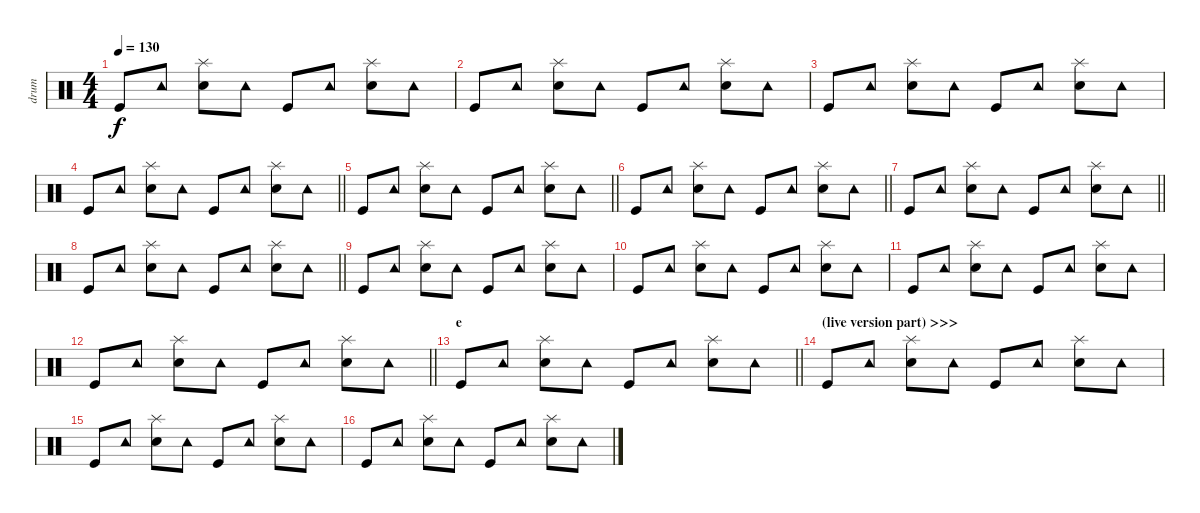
\track ("drum" "drum") {instrument percussion}
\staff {score}
\articulation defaults
\ts (4 4)
\tempo 130
\clef neutral
\ks c "Kick (hit)".8{dy f} "Tambourine (hit)".8
("Snare (hit) 2" "Splash (hit)").8 "Tambourine (hit)".8 "Kick (hit)".8 "Tambourine (hit)".8 ("Snare (hit) 2" "Splash (hit)").8 "Tambourine (hit)".8 |
"Kick (hit)".8 "Tambourine (hit)".8 ("Snare (hit) 2" "Splash (hit)").8 "Tambourine (hit)".8 "Kick (hit)".8 "Tambourine (hit)".8 ("Snare (hit) 2" "Splash (hit)").8 "Tambourine (hit)".8 |
"Kick (hit)".8 "Tambourine (hit)".8 ("Snare (hit) 2" "Splash (hit)").8 "Tambourine (hit)".8 "Kick (hit)".8 "Tambourine (hit)".8 ("Snare (hit) 2" "Splash (hit)").8 "Tambourine (hit)".8 |
\barLineRight lightlight "Kick (hit)".8 "Tambourine (hit)".8
("Snare (hit) 2" "Splash (hit)").8 "Tambourine (hit)".8 "Kick (hit)".8 "Tambourine (hit)".8 ("Snare (hit) 2" "Splash (hit)").8 "Tambourine (hit)".8 |
\barLineRight lightlight "Kick (hit)".8 "Tambourine (hit)".8
("Snare (hit) 2" "Splash (hit)").8 "Tambourine (hit)".8 "Kick (hit)".8 "Tambourine (hit)".8 ("Snare (hit) 2" "Splash (hit)").8 "Tambourine (hit)".8 |
\barLineRight lightlight "Kick (hit)".8 "Tambourine (hit)".8
("Snare (hit) 2" "Splash (hit)").8 "Tambourine (hit)".8 "Kick (hit)".8 "Tambourine (hit)".8 ("Snare (hit) 2" "Splash (hit)").8 "Tambourine (hit)".8 |
\barLineRight lightlight "Kick (hit)".8 "Tambourine (hit)".8
("Snare (hit) 2" "Splash (hit)").8 "Tambourine (hit)".8 "Kick (hit)".8 "Tambourine (hit)".8 ("Snare (hit) 2" "Splash (hit)").8 "Tambourine (hit)".8 |
\barLineRight lightlight "Kick (hit)".8 "Tambourine (hit)".8
("Snare (hit) 2" "Splash (hit)").8 "Tambourine (hit)".8 "Kick (hit)".8 "Tambourine (hit)".8 ("Snare (hit) 2" "Splash (hit)").8 "Tambourine (hit)".8 |
"Kick (hit)".8 "Tambourine (hit)".8 ("Snare (hit) 2" "Splash (hit)").8 "Tambourine (hit)".8 "Kick (hit)".8 "Tambourine (hit)".8 ("Snare (hit) 2" "Splash (hit)").8 "Tambourine (hit)".8 |
"Kick (hit)".8 "Tambourine (hit)".8 ("Snare (hit) 2" "Splash (hit)").8 "Tambourine (hit)".8 "Kick (hit)".8 "Tambourine (hit)".8 ("Snare (hit) 2" "Splash (hit)").8 "Tambourine (hit)".8 |
"Kick (hit)".8 "Tambourine (hit)".8 ("Snare (hit) 2" "Splash (hit)").8 "Tambourine (hit)".8 "Kick (hit)".8 "Tambourine (hit)".8 ("Snare (hit) 2" "Splash (hit)").8 "Tambourine (hit)".8 |
\barLineRight lightlight "Kick (hit)".8 "Tambourine (hit)".8
("Snare (hit) 2" "Splash (hit)").8 "Tambourine (hit)".8 "Kick (hit)".8 "Tambourine (hit)".8 ("Snare (hit) 2" "Splash (hit)").8 "Tambourine (hit)".8 |
\section ("" "e")
\barLineRight lightlight "Kick (hit)".8 "Tambourine (hit)".8
("Snare (hit) 2" "Splash (hit)").8 "Tambourine (hit)".8 "Kick (hit)".8 "Tambourine (hit)".8 ("Snare (hit) 2" "Splash (hit)").8 "Tambourine (hit)".8 |
\section ("" "(live version part) >>>")
"Kick (hit)".8 "Tambourine (hit)".8 ("Snare (hit) 2" "Splash (hit)").8 "Tambourine (hit)".8 "Kick (hit)".8 "Tambourine (hit)".8 ("Snare (hit) 2" "Splash (hit)").8 "Tambourine (hit)".8 |
"Kick (hit)".8 "Tambourine (hit)".8 ("Snare (hit) 2" "Splash (hit)").8 "Tambourine (hit)".8 "Kick (hit)".8 "Tambourine (hit)".8 ("Snare (hit) 2" "Splash (hit)").8 "Tambourine (hit)".8 |
"Kick (hit)".8 "Tambourine (hit)".8 ("Snare (hit) 2" "Splash (hit)").8 "Tambourine (hit)".8 "Kick (hit)".8 "Tambourine (hit)".8 ("Snare (hit) 2" "Splash (hit)").8 "Tambourine (hit)".8
